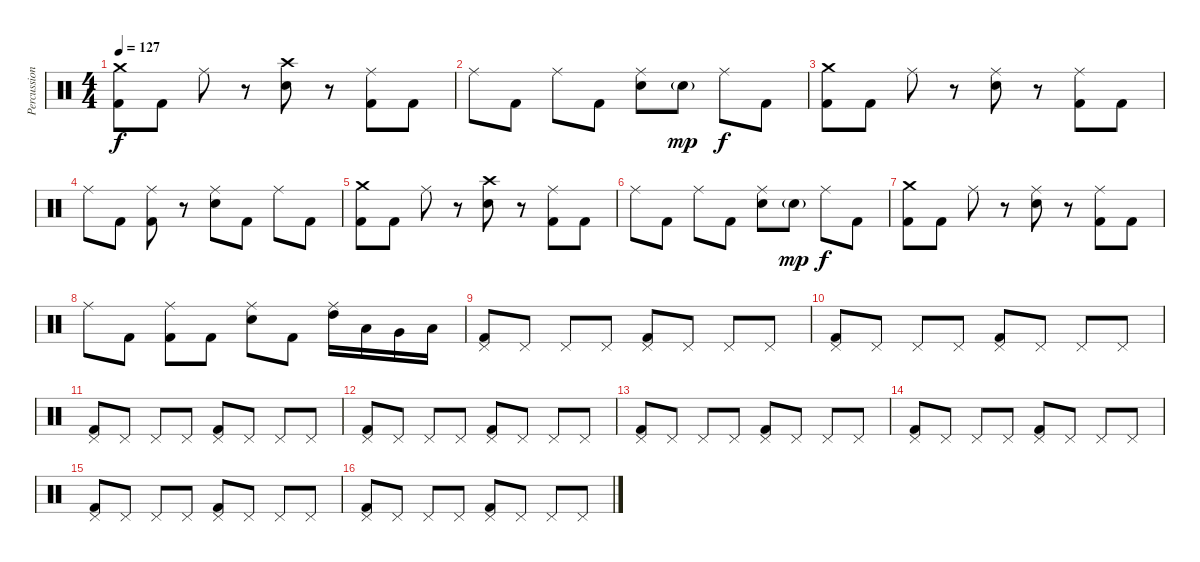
\track ("Percussion" "Percussion") {instrument percussion}
\staff {score}
\articulation defaults
\ts (4 4)
\tempo 127
\clef neutral
\ks c
("Crash medium (hit)" "Kick (hit) 2").8{dy f} "Kick (hit) 2".8 "Ride (middle)".8 r.8 ("Crash high (hit)" "Snare (hit) 2").8 r.8 ("Ride (middle)" "Kick (hit) 2").8 "Kick (hit) 2".8 |
"Ride (middle)".8 "Kick (hit) 2".8 "Ride (middle)".8 "Kick (hit) 2".8 ("Ride (middle)" "Snare (hit) 2").8 "Snare (hit) 2"{g}.8{dy mp} "Ride (middle)".8{dy f} "Kick (hit) 2".8 |
("Crash medium (hit)" "Kick (hit) 2").8 "Kick (hit) 2".8 "Ride (middle)".8 r.8 ("Ride (middle)" "Snare (hit) 2").8 r.8 ("Ride (middle)" "Kick (hit) 2").8 "Kick (hit) 2".8 |
"Ride (middle)".8 "Kick (hit) 2".8 ("Ride (middle)" "Kick (hit) 2").8 r.8 ("Ride (middle)" "Snare (hit) 2").8 "Kick (hit) 2".8 "Ride (middle)".8 "Kick (hit) 2".8 |
("Crash medium (hit)" "Kick (hit) 2").8 "Kick (hit) 2".8 "Ride (middle)".8 r.8 ("Crash high (hit)" "Snare (hit) 2").8 r.8 ("Ride (middle)" "Kick (hit) 2").8 "Kick (hit) 2".8 |
"Ride (middle)".8 "Kick (hit) 2".8 "Ride (middle)".8 "Kick (hit) 2".8 ("Ride (middle)" "Snare (hit) 2").8 "Snare (hit) 2"{g}.8{dy mp} "Ride (middle)".8{dy f} "Kick (hit) 2".8 |
("Crash medium (hit)" "Kick (hit) 2").8 "Kick (hit) 2".8 "Ride (middle)".8 r.8 ("Ride (middle)" "Snare (hit) 2").8 r.8 ("Ride (middle)" "Kick (hit) 2").8 "Kick (hit) 2".8 |
"Ride (middle)".8 "Kick (hit) 2".8 ("Ride (middle)" "Kick (hit) 2").8 "Kick (hit) 2".8 ("Ride (middle)" "Snare (hit) 2").8 "Kick (hit) 2".8 ("Ride (middle)" "High Tom (hit)").16 "Low Tom (hit)".16 "Very Low Tom (hit)".16 "Low Floor Tom (hit)".16 |
("Pedal Hi-Hat (hit)" "Kick (hit) 2").8 "Pedal Hi-Hat (hit)".8 "Pedal Hi-Hat (hit)".8 "Pedal Hi-Hat (hit)".8 ("Pedal Hi-Hat (hit)" "Kick (hit) 2").8 "Pedal Hi-Hat (hit)".8 "Pedal Hi-Hat (hit)".8 "Pedal Hi-Hat (hit)".8 |
("Pedal Hi-Hat (hit)" "Kick (hit) 2").8 "Pedal Hi-Hat (hit)".8 "Pedal Hi-Hat (hit)".8 "Pedal Hi-Hat (hit)".8 ("Pedal Hi-Hat (hit)" "Kick (hit) 2").8 "Pedal Hi-Hat (hit)".8 "Pedal Hi-Hat (hit)".8 "Pedal Hi-Hat (hit)".8 |
("Pedal Hi-Hat (hit)" "Kick (hit) 2").8 "Pedal Hi-Hat (hit)".8 "Pedal Hi-Hat (hit)".8 "Pedal Hi-Hat (hit)".8 ("Pedal Hi-Hat (hit)" "Kick (hit) 2").8 "Pedal Hi-Hat (hit)".8 "Pedal Hi-Hat (hit)".8 "Pedal Hi-Hat (hit)".8 |
("Pedal Hi-Hat (hit)" "Kick (hit) 2").8 "Pedal Hi-Hat (hit)".8 "Pedal Hi-Hat (hit)".8 "Pedal Hi-Hat (hit)".8 ("Pedal Hi-Hat (hit)" "Kick (hit) 2").8 "Pedal Hi-Hat (hit)".8 "Pedal Hi-Hat (hit)".8 "Pedal Hi-Hat (hit)".8 |
("Pedal Hi-Hat (hit)" "Kick (hit) 2").8 "Pedal Hi-Hat (hit)".8 "Pedal Hi-Hat (hit)".8 "Pedal Hi-Hat (hit)".8 ("Pedal Hi-Hat (hit)" "Kick (hit) 2").8 "Pedal Hi-Hat (hit)".8 "Pedal Hi-Hat (hit)".8 "Pedal Hi-Hat (hit)".8 |
("Pedal Hi-Hat (hit)" "Kick (hit) 2").8 "Pedal Hi-Hat (hit)".8 "Pedal Hi-Hat (hit)".8 "Pedal Hi-Hat (hit)".8 ("Pedal Hi-Hat (hit)" "Kick (hit) 2").8 "Pedal Hi-Hat (hit)".8 "Pedal Hi-Hat (hit)".8 "Pedal Hi-Hat (hit)".8 |
("Pedal Hi-Hat (hit)" "Kick (hit) 2").8 "Pedal Hi-Hat (hit)".8 "Pedal Hi-Hat (hit)".8 "Pedal Hi-Hat (hit)".8 ("Pedal Hi-Hat (hit)" "Kick (hit) 2").8 "Pedal Hi-Hat (hit)".8 "Pedal Hi-Hat (hit)".8 "Pedal Hi-Hat (hit)".8 |
("Pedal Hi-Hat (hit)" "Kick (hit) 2").8 "Pedal Hi-Hat (hit)".8 "Pedal Hi-Hat (hit)".8 "Pedal Hi-Hat (hit)".8 ("Pedal Hi-Hat (hit)" "Kick (hit) 2").8 "Pedal Hi-Hat (hit)".8 "Pedal Hi-Hat (hit)".8 "Pedal Hi-Hat (hit)".8
